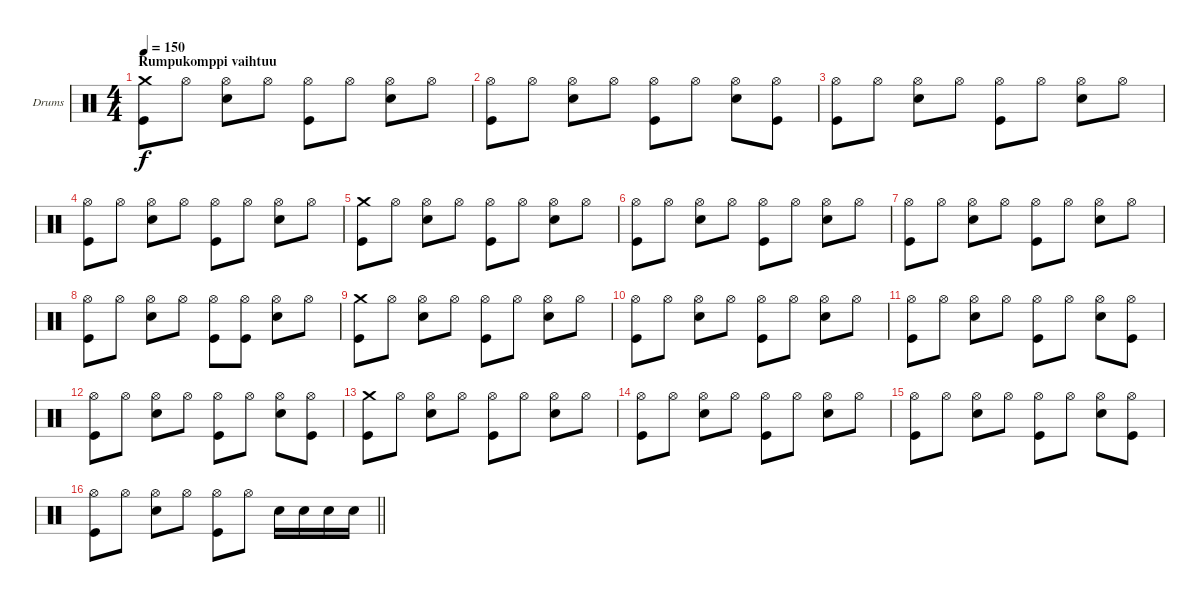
\bracketExtendMode groupsimilarinstruments
\firstSystemTrackNameOrientation horizontal
\otherSystemsTrackNameOrientation horizontal
\track ("Drumkit" "Drums") {instrument percussion}
\staff {score}
\articulation defaults
\ts (4 4)
\section ("" "Rumpukomppi vaihtuu")
\tempo 150
\clef neutral
\ks c
("Crash medium (hit)" "Kick (hit)").8{dy f} "Hi-Hat (open)".8 ("Hi-Hat (open)" "Snare (hit) 2").8 "Hi-Hat (open)".8 ("Hi-Hat (open)" "Kick (hit)").8 "Hi-Hat (open)".8 ("Hi-Hat (open)" "Snare (hit) 2").8 "Hi-Hat (open)".8 |
("Hi-Hat (open)" "Kick (hit)").8 "Hi-Hat (open)".8 ("Hi-Hat (open)" "Snare (hit) 2").8 "Hi-Hat (open)".8 ("Hi-Hat (open)" "Kick (hit)").8 "Hi-Hat (open)".8 ("Hi-Hat (open)" "Snare (hit) 2").8 ("Hi-Hat (open)" "Kick (hit)").8 |
("Hi-Hat (open)" "Kick (hit)").8 "Hi-Hat (open)".8 ("Hi-Hat (open)" "Snare (hit) 2").8 "Hi-Hat (open)".8 ("Hi-Hat (open)" "Kick (hit)").8 "Hi-Hat (open)".8 ("Hi-Hat (open)" "Snare (hit) 2").8 "Hi-Hat (open)".8 |
("Hi-Hat (open)" "Kick (hit)").8 "Hi-Hat (open)".8 ("Hi-Hat (open)" "Snare (hit) 2").8 "Hi-Hat (open)".8 ("Hi-Hat (open)" "Kick (hit)").8 "Hi-Hat (open)".8 ("Hi-Hat (open)" "Snare (hit) 2").8 "Hi-Hat (open)".8 |
("Crash medium (hit)" "Kick (hit)").8 "Hi-Hat (open)".8 ("Hi-Hat (open)" "Snare (hit) 2").8 "Hi-Hat (open)".8 ("Hi-Hat (open)" "Kick (hit)").8 "Hi-Hat (open)".8 ("Hi-Hat (open)" "Snare (hit) 2").8 "Hi-Hat (open)".8 |
("Hi-Hat (open)" "Kick (hit)").8 "Hi-Hat (open)".8 ("Hi-Hat (open)" "Snare (hit) 2").8 "Hi-Hat (open)".8 ("Hi-Hat (open)" "Kick (hit)").8 "Hi-Hat (open)".8 ("Hi-Hat (open)" "Snare (hit) 2").8 "Hi-Hat (open)".8 |
("Hi-Hat (open)" "Kick (hit)").8 "Hi-Hat (open)".8 ("Hi-Hat (open)" "Snare (hit) 2").8 "Hi-Hat (open)".8 ("Hi-Hat (open)" "Kick (hit)").8 "Hi-Hat (open)".8 ("Hi-Hat (open)" "Snare (hit) 2").8 "Hi-Hat (open)".8 |
("Hi-Hat (open)" "Kick (hit)").8 "Hi-Hat (open)".8 ("Hi-Hat (open)" "Snare (hit) 2").8 "Hi-Hat (open)".8 ("Hi-Hat (open)" "Kick (hit)").8 ("Hi-Hat (open)" "Kick (hit)").8 ("Hi-Hat (open)" "Snare (hit) 2").8 "Hi-Hat (open)".8 |
("Crash medium (hit)" "Kick (hit)").8 "Hi-Hat (open)".8 ("Hi-Hat (open)" "Snare (hit) 2").8 "Hi-Hat (open)".8 ("Hi-Hat (open)" "Kick (hit)").8 "Hi-Hat (open)".8 ("Hi-Hat (open)" "Snare (hit) 2").8 "Hi-Hat (open)".8 |
("Hi-Hat (open)" "Kick (hit)").8 "Hi-Hat (open)".8 ("Hi-Hat (open)" "Snare (hit) 2").8 "Hi-Hat (open)".8 ("Hi-Hat (open)" "Kick (hit)").8 "Hi-Hat (open)".8 ("Hi-Hat (open)" "Snare (hit) 2").8 "Hi-Hat (open)".8 |
("Hi-Hat (open)" "Kick (hit)").8 "Hi-Hat (open)".8 ("Hi-Hat (open)" "Snare (hit) 2").8 "Hi-Hat (open)".8 ("Hi-Hat (open)" "Kick (hit)").8 "Hi-Hat (open)".8 ("Hi-Hat (open)" "Snare (hit) 2").8 ("Hi-Hat (open)" "Kick (hit)").8 |
("Hi-Hat (open)" "Kick (hit)").8 "Hi-Hat (open)".8 ("Hi-Hat (open)" "Snare (hit) 2").8 "Hi-Hat (open)".8 ("Hi-Hat (open)" "Kick (hit)").8 "Hi-Hat (open)".8 ("Hi-Hat (open)" "Snare (hit) 2").8 ("Hi-Hat (open)" "Kick (hit)").8 |
("Crash medium (hit)" "Kick (hit)").8 "Hi-Hat (open)".8 ("Hi-Hat (open)" "Snare (hit) 2").8 "Hi-Hat (open)".8 ("Hi-Hat (open)" "Kick (hit)").8 "Hi-Hat (open)".8 ("Hi-Hat (open)" "Snare (hit) 2").8 "Hi-Hat (open)".8 |
("Hi-Hat (open)" "Kick (hit)").8 "Hi-Hat (open)".8 ("Hi-Hat (open)" "Snare (hit) 2").8 "Hi-Hat (open)".8 ("Hi-Hat (open)" "Kick (hit)").8 "Hi-Hat (open)".8 ("Hi-Hat (open)" "Snare (hit) 2").8 "Hi-Hat (open)".8 |
("Hi-Hat (open)" "Kick (hit)").8 "Hi-Hat (open)".8 ("Hi-Hat (open)" "Snare (hit) 2").8 "Hi-Hat (open)".8 ("Hi-Hat (open)" "Kick (hit)").8 "Hi-Hat (open)".8 ("Hi-Hat (open)" "Snare (hit) 2").8 ("Hi-Hat (open)" "Kick (hit)").8 |
\barLineRight lightlight
("Hi-Hat (open)" "Kick (hit)").8 "Hi-Hat (open)".8 ("Hi-Hat (open)" "Snare (hit) 2").8 "Hi-Hat (open)".8 ("Hi-Hat (open)" "Kick (hit)").8 "Hi-Hat (open)".8 "Snare (hit) 2".16 "Snare (hit) 2".16 "Snare (hit) 2".16 "Snare (hit) 2".16
